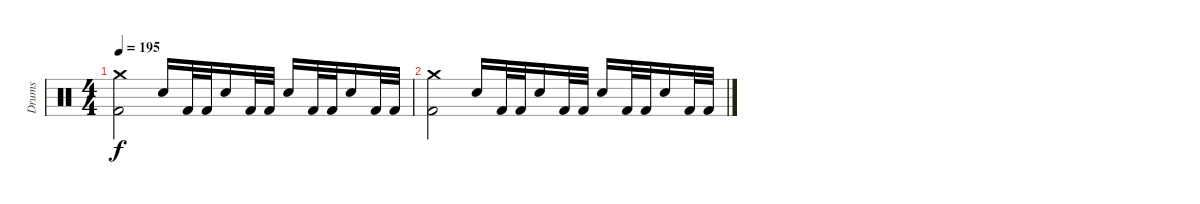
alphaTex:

\track ("Drums" "Drums") {instrument percussion}
\staff {score}
\articulation defaults
\ts (4 4)
\tempo 195
\clef neutral
\ks c
("Crash medium (hit)" "Kick (hit) 2").2{dy f} "Electric Snare (hit)".16 "Kick (hit) 2".32 "Kick (hit) 2".32 "Electric Snare (hit)".16 "Kick (hit) 2".32 "Kick (hit) 2".32 "Electric Snare (hit)".16 "Kick (hit) 2".32 "Kick (hit) 2".32 "Electric Snare (hit)".16 "Kick (hit) 2".32 "Kick (hit) 2".32 |
("Crash medium (hit)" "Kick (hit) 2").2 "Electric Snare (hit)".16 "Kick (hit) 2".32 "Kick (hit) 2".32 "Electric Snare (hit)".16 "Kick (hit) 2".32 "Kick (hit) 2".32 "Electric Snare (hit)".16 "Kick (hit) 2".32 "Kick (hit) 2".32 "Electric Snare (hit)".16 "Kick (hit) 2".32 "Kick (hit) 2".32
